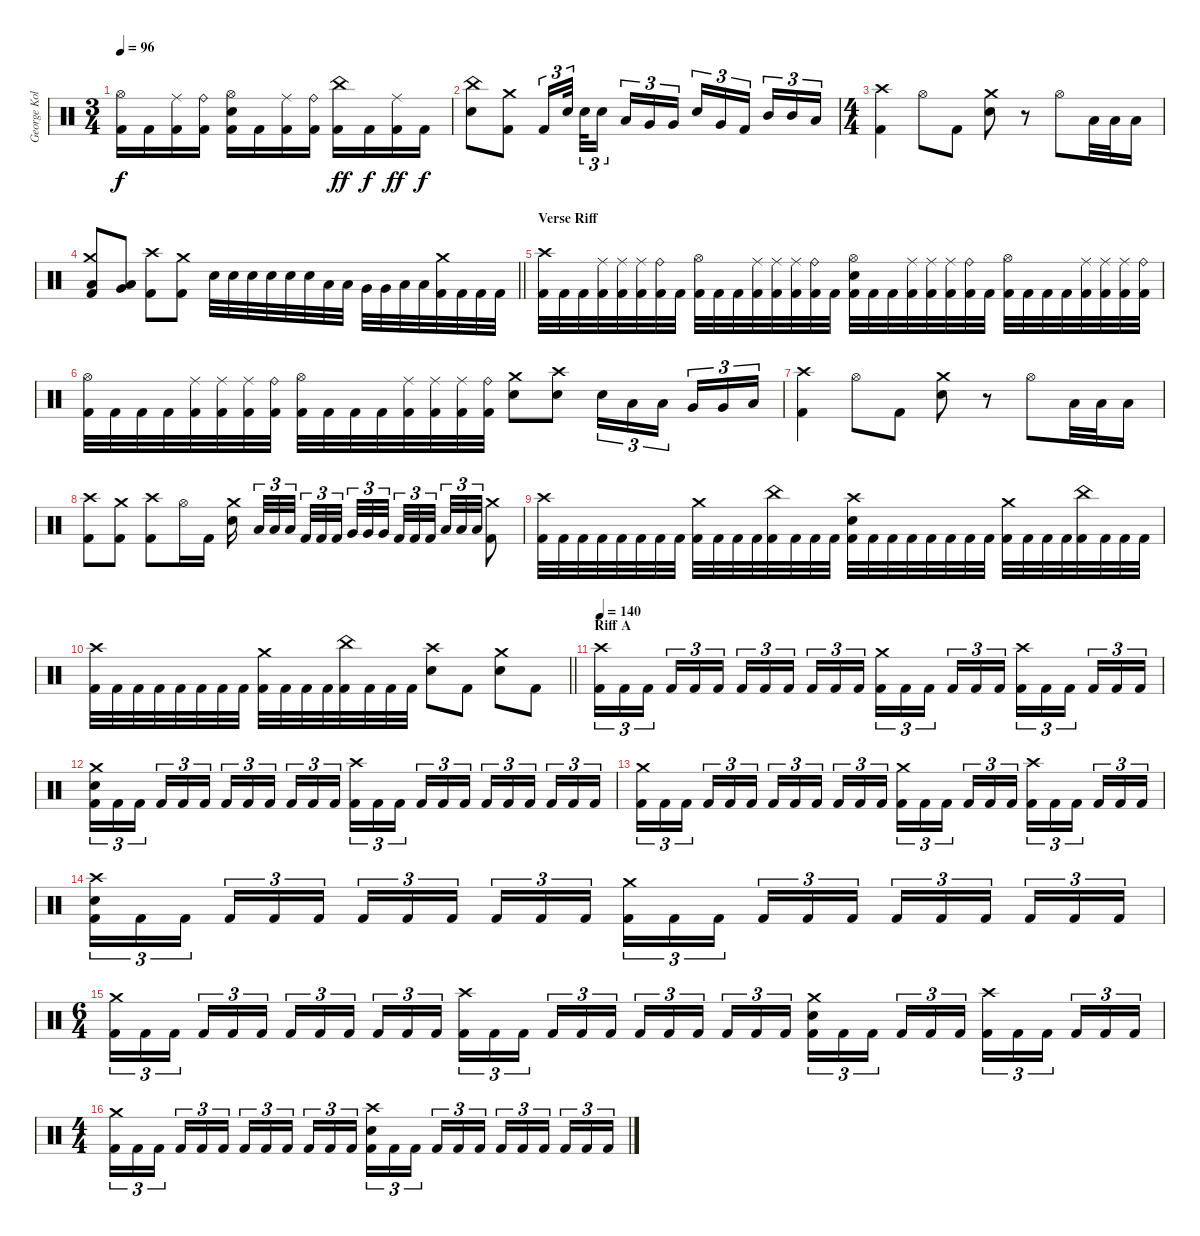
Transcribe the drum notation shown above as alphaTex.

\track ("George Kollias" "George Kol") {instrument percussion}
\staff {score}
\articulation defaults
\ts (3 4)
\tempo 96
\clef neutral
\ks c
("Hi-Hat (open)" "Kick (hit) 2").16{dy f} "Kick (hit) 2".16 ("Ride (middle)" "Kick (hit) 2").16 ("Ride (bell)" "Kick (hit) 2").16 ("Hi-Hat (open)" "Electric Snare (hit)" "Kick (hit) 2").16 "Kick (hit) 2".16 ("Ride (middle)" "Kick (hit) 2").16 ("Ride (bell)" "Kick (hit) 2").16 ("China (hit)" "Kick (hit) 2").16{dy ff} "Kick (hit) 2".16{dy f} ("Ride (middle)" "Kick (hit) 2").16{dy ff} "Kick (hit) 2".16{dy f} |
("China (hit)" "Electric Snare (hit)").8 ("Crash medium (hit)" "Kick (hit) 2").8 "Kick (hit) 2".16{tu (3 2)} "Electric Snare (hit)".32{tu (3 2) beam splitsecondary} "Electric Snare (hit)".32{tu (3 2)} "Electric Snare (hit)".16{tu (3 2) beam splitsecondary} "Low Tom (hit)".16{tu (3 2)} "Very Low Tom (hit)".16{tu (3 2)} "Very Low Tom (hit)".16{tu (3 2)} "Electric Snare (hit)".16{tu (3 2)} "Very Low Tom (hit)".16{tu (3 2)} "Kick (hit) 2".16{tu (3 2) beam splitsecondary} "Mid Tom (hit)".16{tu (3 2)} "Mid Tom (hit)".16{tu (3 2)} "Low Tom (hit)".16{tu (3 2)} |
\ts (4 4)
("Crash high (hit)" "Kick (hit) 2").4 "Hi-Hat (open)".8 "Kick (hit) 2".8 ("Crash medium (hit)" "Electric Snare (hit)").8 r.8 "Hi-Hat (open)".8 "Low Tom (hit)".32 "Low Tom (hit)".32 "Low Tom (hit)".16 |
\barLineRight lightlight
("Crash medium (hit)" "Low Floor Tom (hit)" "Kick (hit) 2").8 ("Very Low Tom (hit)" "Low Floor Tom (hit)").8 ("Crash high (hit)" "Kick (hit) 2").8 ("Crash medium (hit)" "Kick (hit) 2").8 "Electric Snare (hit)".32 "Electric Snare (hit)".32 "Electric Snare (hit)".32 "Electric Snare (hit)".32 "Electric Snare (hit)".32 "Electric Snare (hit)".32 "Low Tom (hit)".32 "Low Tom (hit)".32 "Very Low Tom (hit)".32 "Very Low Tom (hit)".32 "Low Floor Tom (hit)".32 "Low Floor Tom (hit)".32 ("Crash medium (hit)" "Kick (hit) 2").32 "Kick (hit) 2".32 "Kick (hit) 2".32 "Kick (hit) 2".32 |
\section ("" "Verse Riff")
("Crash high (hit)" "Kick (hit) 2").32 "Kick (hit) 2".32 "Kick (hit) 2".32 ("Ride (middle)" "Kick (hit) 2").32 ("Ride (middle)" "Kick (hit) 2").32 ("Ride (middle)" "Kick (hit) 2").32 ("Ride (bell)" "Kick (hit) 2").32 "Kick (hit) 2".32 ("Hi-Hat (open)" "Kick (hit) 2").32 "Kick (hit) 2".32 "Kick (hit) 2".32 ("Ride (middle)" "Kick (hit) 2").32 ("Ride (middle)" "Kick (hit) 2").32 ("Ride (middle)" "Kick (hit) 2").32 ("Ride (bell)" "Kick (hit) 2").32 "Kick (hit) 2".32 ("Hi-Hat (open)" "Electric Snare (hit)" "Kick (hit) 2").32 "Kick (hit) 2".32 "Kick (hit) 2".32 ("Ride (middle)" "Kick (hit) 2").32 ("Ride (middle)" "Kick (hit) 2").32 ("Ride (middle)" "Kick (hit) 2").32 ("Ride (bell)" "Kick (hit) 2").32 "Kick (hit) 2".32 ("Hi-Hat (open)" "Kick (hit) 2").32 "Kick (hit) 2".32 "Kick (hit) 2".32 "Kick (hit) 2".32 ("Ride (middle)" "Kick (hit) 2").32 ("Ride (middle)" "Kick (hit) 2").32 ("Ride (middle)" "Kick (hit) 2").32 ("Ride (bell)" "Kick (hit) 2").32 |
("Hi-Hat (open)" "Kick (hit) 2").32 "Kick (hit) 2".32 "Kick (hit) 2".32 "Kick (hit) 2".32 ("Ride (middle)" "Kick (hit) 2").32 ("Ride (middle)" "Kick (hit) 2").32 ("Ride (middle)" "Kick (hit) 2").32 ("Ride (bell)" "Kick (hit) 2").32 ("Hi-Hat (open)" "Kick (hit) 2").32 "Kick (hit) 2".32 "Kick (hit) 2".32 "Kick (hit) 2".32 ("Ride (middle)" "Kick (hit) 2").32 ("Ride (middle)" "Kick (hit) 2").32 ("Ride (middle)" "Kick (hit) 2").32 ("Ride (bell)" "Kick (hit) 2").32 ("Crash medium (hit)" "Electric Snare (hit)").8 ("Crash high (hit)" "Electric Snare (hit)").8 "Electric Snare (hit)".16{tu (3 2)} "Low Tom (hit)".16{tu (3 2)} "Low Tom (hit)".16{tu (3 2) beam splitsecondary} "Very Low Tom (hit)".16{tu (3 2)} "Very Low Tom (hit)".16{tu (3 2)} "Low Floor Tom (hit)".16{tu (3 2)} |
("Crash high (hit)" "Kick (hit) 2").4 "Hi-Hat (open)".8 "Kick (hit) 2".8 ("Crash medium (hit)" "Electric Snare (hit)").8 r.8 "Hi-Hat (open)".8 "Low Tom (hit)".32 "Low Tom (hit)".32 "Low Tom (hit)".16 |
("Crash high (hit)" "Kick (hit) 2").8 ("Crash medium (hit)" "Kick (hit) 2").8 ("Crash high (hit)" "Kick (hit) 2").8 "Hi-Hat (open)".16 "Kick (hit) 2".16 ("Crash medium (hit)" "Electric Snare (hit)").16{beam splitsecondary} "Low Tom (hit)".32{tu (3 2)} "Low Tom (hit)".32{tu (3 2)} "Low Tom (hit)".32{tu (3 2) beam splitsecondary} "Kick (hit) 2".32{tu (3 2)} "Kick (hit) 2".32{tu (3 2)} "Kick (hit) 2".32{tu (3 2) beam splitsecondary} "Very Low Tom (hit)".32{tu (3 2)} "Very Low Tom (hit)".32{tu (3 2)} "Very Low Tom (hit)".32{tu (3 2)} "Kick (hit) 2".32{tu (3 2)} "Kick (hit) 2".32{tu (3 2)} "Kick (hit) 2".32{tu (3 2) beam splitsecondary} "Low Floor Tom (hit)".32{tu (3 2)} "Low Floor Tom (hit)".32{tu (3 2)} "Low Floor Tom (hit)".32{tu (3 2)} ("Crash medium (hit)" "Kick (hit) 2").8 |
("Crash high (hit)" "Kick (hit) 2").32 "Kick (hit) 2".32 "Kick (hit) 2".32 "Kick (hit) 2".32 "Kick (hit) 2".32 "Kick (hit) 2".32 "Kick (hit) 2".32 "Kick (hit) 2".32 ("Crash medium (hit)" "Kick (hit) 2").32 "Kick (hit) 2".32 "Kick (hit) 2".32 "Kick (hit) 2".32 ("China (hit)" "Kick (hit) 2").32 "Kick (hit) 2".32 "Kick (hit) 2".32 "Kick (hit) 2".32 ("Crash high (hit)" "Electric Snare (hit)" "Kick (hit) 2").32 "Kick (hit) 2".32 "Kick (hit) 2".32 "Kick (hit) 2".32 "Kick (hit) 2".32 "Kick (hit) 2".32 "Kick (hit) 2".32 "Kick (hit) 2".32 ("Crash medium (hit)" "Kick (hit) 2").32 "Kick (hit) 2".32 "Kick (hit) 2".32 "Kick (hit) 2".32 ("China (hit)" "Kick (hit) 2").32 "Kick (hit) 2".32 "Kick (hit) 2".32 "Kick (hit) 2".32 |
\barLineRight lightlight
("Crash high (hit)" "Kick (hit) 2").32 "Kick (hit) 2".32 "Kick (hit) 2".32 "Kick (hit) 2".32 "Kick (hit) 2".32 "Kick (hit) 2".32 "Kick (hit) 2".32 "Kick (hit) 2".32 ("Crash medium (hit)" "Kick (hit) 2").32 "Kick (hit) 2".32 "Kick (hit) 2".32 "Kick (hit) 2".32 ("China (hit)" "Kick (hit) 2").32 "Kick (hit) 2".32 "Kick (hit) 2".32 "Kick (hit) 2".32 ("Crash high (hit)" "Electric Snare (hit)").8 "Kick (hit) 2".8 ("Crash medium (hit)" "Electric Snare (hit)").8 "Kick (hit) 2".8 |
\section ("" "Riff A")
\tempo 140
("Crash high (hit)" "Kick (hit) 2").16{tu (3 2)} "Kick (hit) 2".16{tu (3 2)} "Kick (hit) 2".16{tu (3 2) beam splitsecondary} "Kick (hit) 2".16{tu (3 2)} "Kick (hit) 2".16{tu (3 2)} "Kick (hit) 2".16{tu (3 2)} "Kick (hit) 2".16{tu (3 2)} "Kick (hit) 2".16{tu (3 2)} "Kick (hit) 2".16{tu (3 2) beam splitsecondary} "Kick (hit) 2".16{tu (3 2)} "Kick (hit) 2".16{tu (3 2)} "Kick (hit) 2".16{tu (3 2)} ("Crash medium (hit)" "Kick (hit) 2").16{tu (3 2)} "Kick (hit) 2".16{tu (3 2)} "Kick (hit) 2".16{tu (3 2) beam splitsecondary} "Kick (hit) 2".16{tu (3 2)} "Kick (hit) 2".16{tu (3 2)} "Kick (hit) 2".16{tu (3 2)} ("Crash high (hit)" "Kick (hit) 2").16{tu (3 2)} "Kick (hit) 2".16{tu (3 2)} "Kick (hit) 2".16{tu (3 2) beam splitsecondary} "Kick (hit) 2".16{tu (3 2)} "Kick (hit) 2".16{tu (3 2)} "Kick (hit) 2".16{tu (3 2)} |
("Crash medium (hit)" "Electric Snare (hit)" "Kick (hit) 2").16{tu (3 2)} "Kick (hit) 2".16{tu (3 2)} "Kick (hit) 2".16{tu (3 2) beam splitsecondary} "Kick (hit) 2".16{tu (3 2)} "Kick (hit) 2".16{tu (3 2)} "Kick (hit) 2".16{tu (3 2)} "Kick (hit) 2".16{tu (3 2)} "Kick (hit) 2".16{tu (3 2)} "Kick (hit) 2".16{tu (3 2) beam splitsecondary} "Kick (hit) 2".16{tu (3 2)} "Kick (hit) 2".16{tu (3 2)} "Kick (hit) 2".16{tu (3 2)} ("Crash high (hit)" "Kick (hit) 2").16{tu (3 2)} "Kick (hit) 2".16{tu (3 2)} "Kick (hit) 2".16{tu (3 2) beam splitsecondary} "Kick (hit) 2".16{tu (3 2)} "Kick (hit) 2".16{tu (3 2)} "Kick (hit) 2".16{tu (3 2)} "Kick (hit) 2".16{tu (3 2)} "Kick (hit) 2".16{tu (3 2)} "Kick (hit) 2".16{tu (3 2) beam splitsecondary} "Kick (hit) 2".16{tu (3 2)} "Kick (hit) 2".16{tu (3 2)} "Kick (hit) 2".16{tu (3 2)} |
("Crash medium (hit)" "Kick (hit) 2").16{tu (3 2)} "Kick (hit) 2".16{tu (3 2)} "Kick (hit) 2".16{tu (3 2) beam splitsecondary} "Kick (hit) 2".16{tu (3 2)} "Kick (hit) 2".16{tu (3 2)} "Kick (hit) 2".16{tu (3 2)} "Kick (hit) 2".16{tu (3 2)} "Kick (hit) 2".16{tu (3 2)} "Kick (hit) 2".16{tu (3 2) beam splitsecondary} "Kick (hit) 2".16{tu (3 2)} "Kick (hit) 2".16{tu (3 2)} "Kick (hit) 2".16{tu (3 2)} ("Crash medium (hit)" "Kick (hit) 2").16{tu (3 2)} "Kick (hit) 2".16{tu (3 2)} "Kick (hit) 2".16{tu (3 2) beam splitsecondary} "Kick (hit) 2".16{tu (3 2)} "Kick (hit) 2".16{tu (3 2)} "Kick (hit) 2".16{tu (3 2)} ("Crash high (hit)" "Kick (hit) 2").16{tu (3 2)} "Kick (hit) 2".16{tu (3 2)} "Kick (hit) 2".16{tu (3 2) beam splitsecondary} "Kick (hit) 2".16{tu (3 2)} "Kick (hit) 2".16{tu (3 2)} "Kick (hit) 2".16{tu (3 2)} |
("Crash high (hit)" "Electric Snare (hit)" "Kick (hit) 2").16{tu (3 2)} "Kick (hit) 2".16{tu (3 2)} "Kick (hit) 2".16{tu (3 2) beam splitsecondary} "Kick (hit) 2".16{tu (3 2)} "Kick (hit) 2".16{tu (3 2)} "Kick (hit) 2".16{tu (3 2)} "Kick (hit) 2".16{tu (3 2)} "Kick (hit) 2".16{tu (3 2)} "Kick (hit) 2".16{tu (3 2) beam splitsecondary} "Kick (hit) 2".16{tu (3 2)} "Kick (hit) 2".16{tu (3 2)} "Kick (hit) 2".16{tu (3 2)} ("Crash medium (hit)" "Kick (hit) 2").16{tu (3 2)} "Kick (hit) 2".16{tu (3 2)} "Kick (hit) 2".16{tu (3 2) beam splitsecondary} "Kick (hit) 2".16{tu (3 2)} "Kick (hit) 2".16{tu (3 2)} "Kick (hit) 2".16{tu (3 2)} "Kick (hit) 2".16{tu (3 2)} "Kick (hit) 2".16{tu (3 2)} "Kick (hit) 2".16{tu (3 2) beam splitsecondary} "Kick (hit) 2".16{tu (3 2)} "Kick (hit) 2".16{tu (3 2)} "Kick (hit) 2".16{tu (3 2)} |
\ts (6 4)
("Crash medium (hit)" "Kick (hit) 2").16{tu (3 2)} "Kick (hit) 2".16{tu (3 2)} "Kick (hit) 2".16{tu (3 2) beam splitsecondary} "Kick (hit) 2".16{tu (3 2)} "Kick (hit) 2".16{tu (3 2)} "Kick (hit) 2".16{tu (3 2) beam splitsecondary} "Kick (hit) 2".16{tu (3 2)} "Kick (hit) 2".16{tu (3 2)} "Kick (hit) 2".16{tu (3 2) beam splitsecondary} "Kick (hit) 2".16{tu (3 2)} "Kick (hit) 2".16{tu (3 2)} "Kick (hit) 2".16{tu (3 2) beam splitsecondary} ("Crash high (hit)" "Kick (hit) 2").16{tu (3 2)} "Kick (hit) 2".16{tu (3 2)} "Kick (hit) 2".16{tu (3 2) beam splitsecondary} "Kick (hit) 2".16{tu (3 2)} "Kick (hit) 2".16{tu (3 2)} "Kick (hit) 2".16{tu (3 2)} "Kick (hit) 2".16{tu (3 2)} "Kick (hit) 2".16{tu (3 2)} "Kick (hit) 2".16{tu (3 2) beam splitsecondary} "Kick (hit) 2".16{tu (3 2)} "Kick (hit) 2".16{tu (3 2)} "Kick (hit) 2".16{tu (3 2) beam splitsecondary} ("Crash medium (hit)" "Electric Snare (hit)" "Kick (hit) 2").16{tu (3 2)} "Kick (hit) 2".16{tu (3 2)} "Kick (hit) 2".16{tu (3 2) beam splitsecondary} "Kick (hit) 2".16{tu (3 2)} "Kick (hit) 2".16{tu (3 2)} "Kick (hit) 2".16{tu (3 2) beam splitsecondary} ("Crash high (hit)" "Kick (hit) 2").16{tu (3 2)} "Kick (hit) 2".16{tu (3 2)} "Kick (hit) 2".16{tu (3 2) beam splitsecondary} "Kick (hit) 2".16{tu (3 2)} "Kick (hit) 2".16{tu (3 2)} "Kick (hit) 2".16{tu (3 2)} |
\ts (4 4)
("Crash medium (hit)" "Kick (hit) 2").16{tu (3 2)} "Kick (hit) 2".16{tu (3 2)} "Kick (hit) 2".16{tu (3 2) beam splitsecondary} "Kick (hit) 2".16{tu (3 2)} "Kick (hit) 2".16{tu (3 2)} "Kick (hit) 2".16{tu (3 2)} "Kick (hit) 2".16{tu (3 2)} "Kick (hit) 2".16{tu (3 2)} "Kick (hit) 2".16{tu (3 2) beam splitsecondary} "Kick (hit) 2".16{tu (3 2)} "Kick (hit) 2".16{tu (3 2)} "Kick (hit) 2".16{tu (3 2)} ("Crash high (hit)" "Electric Snare (hit)" "Kick (hit) 2").16{tu (3 2)} "Kick (hit) 2".16{tu (3 2)} "Kick (hit) 2".16{tu (3 2) beam splitsecondary} "Kick (hit) 2".16{tu (3 2)} "Kick (hit) 2".16{tu (3 2)} "Kick (hit) 2".16{tu (3 2)} "Kick (hit) 2".16{tu (3 2)} "Kick (hit) 2".16{tu (3 2)} "Kick (hit) 2".16{tu (3 2) beam splitsecondary} "Kick (hit) 2".16{tu (3 2)} "Kick (hit) 2".16{tu (3 2)} "Kick (hit) 2".16{tu (3 2)}
